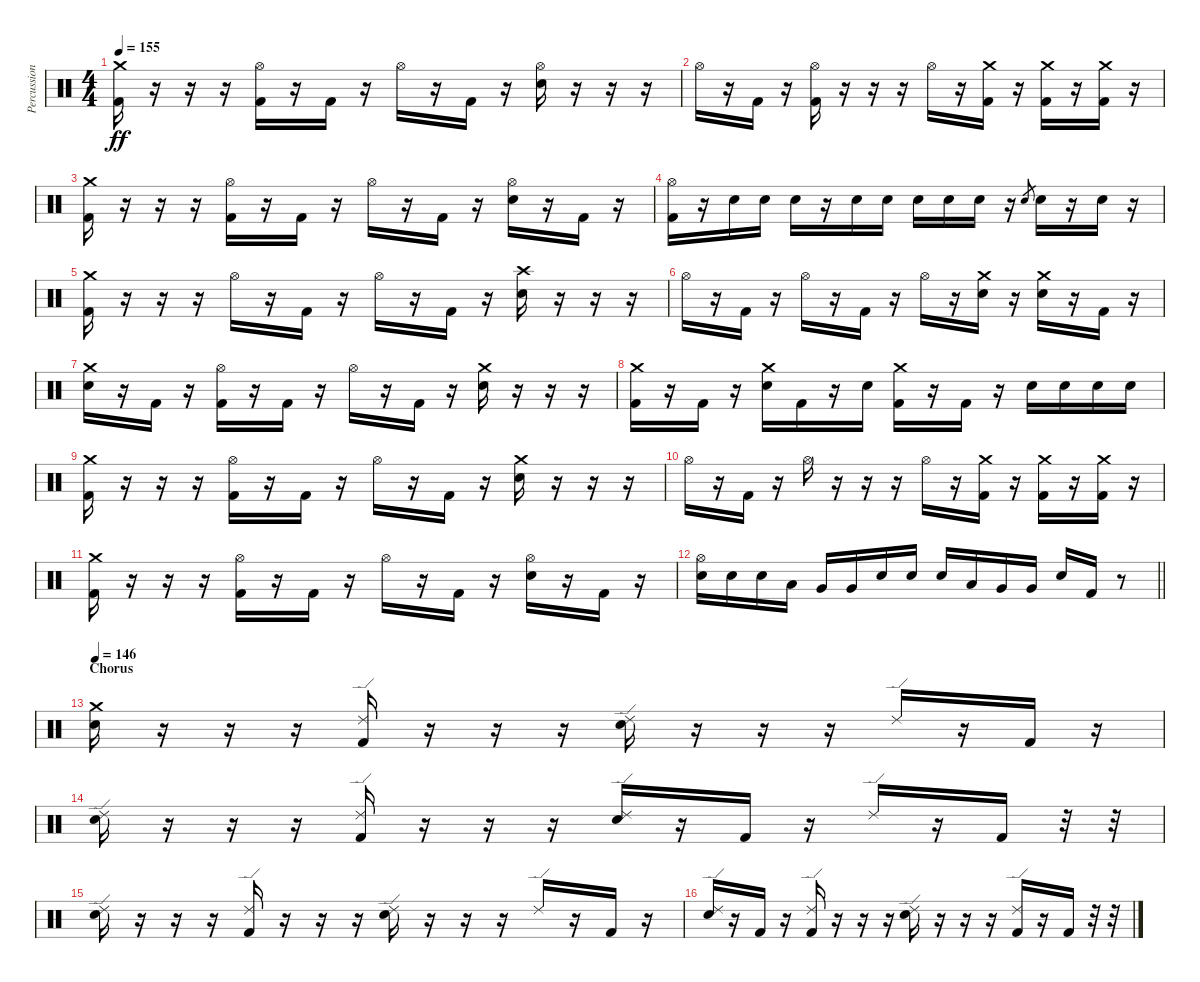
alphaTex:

\track ("Percussion" "Percussion") {instrument percussion}
\staff {score}
\articulation defaults
\ts (4 4)
\tempo 155
\clef neutral
\ks c
("Crash medium (hit)" "Kick (hit) 2").16{dy ff} r.16 r.16 r.16 ("Hi-Hat (open)" "Kick (hit) 2").16 r.16 "Kick (hit) 2".16 r.16 "Hi-Hat (open)".16 r.16 "Kick (hit) 2".16 r.16 ("Hi-Hat (open)" "Electric Snare (hit)").16 r.16 r.16 r.16 |
"Hi-Hat (open)".16 r.16 "Kick (hit) 2".16 r.16 ("Hi-Hat (open)" "Kick (hit) 2").16 r.16 r.16 r.16 "Hi-Hat (open)".16 r.16 ("Crash medium (hit)" "Kick (hit) 2").16 r.16 ("Crash medium (hit)" "Kick (hit) 2").16 r.16 ("Crash medium (hit)" "Kick (hit) 2").16 r.16 |
("Crash medium (hit)" "Kick (hit) 2").16 r.16 r.16 r.16 ("Hi-Hat (open)" "Kick (hit) 2").16 r.16 "Kick (hit) 2".16 r.16 "Hi-Hat (open)".16 r.16 "Kick (hit) 2".16 r.16 ("Hi-Hat (open)" "Electric Snare (hit)").16 r.16 "Kick (hit) 2".16 r.16 |
("Hi-Hat (open)" "Kick (hit) 2").16 r.16 "Electric Snare (hit)".16 "Electric Snare (hit)".16 "Electric Snare (hit)".16 r.16 "Electric Snare (hit)".16 "Electric Snare (hit)".16 "Electric Snare (hit)".16 "Electric Snare (hit)".16 "Electric Snare (hit)".16 r.16 "Electric Snare (hit)".8{gr} "Electric Snare (hit)".16 r.16 "Electric Snare (hit)".16 r.16 |
("Crash medium (hit)" "Kick (hit) 2").16 r.16 r.16 r.16 "Hi-Hat (open)".16 r.16 "Kick (hit) 2".16 r.16 "Hi-Hat (open)".16 r.16 "Kick (hit) 2".16 r.16 ("Crash high (hit)" "Electric Snare (hit)").16 r.16 r.16 r.16 |
"Hi-Hat (open)".16 r.16 "Kick (hit) 2".16 r.16 "Hi-Hat (open)".16 r.16 "Kick (hit) 2".16 r.16 "Hi-Hat (open)".16 r.16 ("Crash medium (hit)" "Electric Snare (hit)").16 r.16 ("Crash medium (hit)" "Electric Snare (hit)").16 r.16 "Kick (hit) 2".16 r.16 |
("Crash medium (hit)" "Electric Snare (hit)").16 r.16 "Kick (hit) 2".16 r.16 ("Hi-Hat (open)" "Kick (hit) 2").16 r.16 "Kick (hit) 2".16 r.16 "Hi-Hat (open)".16 r.16 "Kick (hit) 2".16 r.16 ("Crash medium (hit)" "Electric Snare (hit)").16 r.16 r.16 r.16 |
("Crash medium (hit)" "Kick (hit) 2").16 r.16 "Kick (hit) 2".16 r.16 ("Crash medium (hit)" "Electric Snare (hit)").16 "Kick (hit) 2".16 r.16 "Electric Snare (hit)".16 ("Crash medium (hit)" "Kick (hit) 2").16 r.16 "Kick (hit) 2".16 r.16 "Electric Snare (hit)".16 "Electric Snare (hit)".16 "Electric Snare (hit)".16 "Electric Snare (hit)".16 |
("Crash medium (hit)" "Kick (hit) 2").16 r.16 r.16 r.16 ("Hi-Hat (open)" "Kick (hit) 2").16 r.16 "Kick (hit) 2".16 r.16 "Hi-Hat (open)".16 r.16 "Kick (hit) 2".16 r.16 ("Crash medium (hit)" "Electric Snare (hit)").16 r.16 r.16 r.16 |
"Hi-Hat (open)".16 r.16 "Kick (hit) 2".16 r.16 "Hi-Hat (open)".16 r.16 r.16 r.16 "Hi-Hat (open)".16 r.16 ("Crash medium (hit)" "Kick (hit) 2").16 r.16 ("Crash medium (hit)" "Kick (hit) 2").16 r.16 ("Crash medium (hit)" "Kick (hit) 2").16 r.16 |
("Crash medium (hit)" "Kick (hit) 2").16 r.16 r.16 r.16 ("Hi-Hat (open)" "Kick (hit) 2").16 r.16 "Kick (hit) 2".16 r.16 "Hi-Hat (open)".16 r.16 "Kick (hit) 2".16 r.16 ("Hi-Hat (open)" "Electric Snare (hit)").16 r.16 "Kick (hit) 2".16 r.16 |
\barLineRight lightlight
("Hi-Hat (open)" "Electric Snare (hit)").16 "Electric Snare (hit)".16 "Electric Snare (hit)".16 "Low Tom (hit)".16 "Very Low Tom (hit)".16 "Very Low Tom (hit)".16 "Electric Snare (hit)".16 "Electric Snare (hit)".16 "Electric Snare (hit)".16 "Low Tom (hit)".16 "Very Low Tom (hit)".16 "Very Low Tom (hit)".16 "Electric Snare (hit)".16 "Kick (hit) 2".16 r.8 |
\section ("" "Chorus")
\tempo 146
("Crash medium (hit)" "Electric Snare (hit)").16 r.16 r.16 r.16 ("Ride (edge) 2" "Kick (hit) 2").16 r.16 r.16 r.16 ("Ride (edge) 2" "Electric Snare (hit)").16 r.16 r.16 r.16 "Ride (edge) 2".16 r.16 "Kick (hit) 2".16 r.16 |
("Ride (edge) 2" "Electric Snare (hit)").16 r.16 r.16 r.16 ("Ride (edge) 2" "Kick (hit) 2").16 r.16 r.16 r.16 ("Ride (edge) 2" "Electric Snare (hit)").16 r.16 "Kick (hit) 2".16 r.16 "Ride (edge) 2".16 r.16 "Kick (hit) 2".16 r.32 r.32 |
("Ride (edge) 2" "Electric Snare (hit)").16 r.16 r.16 r.16 ("Ride (edge) 2" "Kick (hit) 2").16 r.16 r.16 r.16 ("Ride (edge) 2" "Electric Snare (hit)").16 r.16 r.16 r.16 "Ride (edge) 2".16 r.16 "Kick (hit) 2".16 r.16 |
("Ride (edge) 2" "Electric Snare (hit)").16 r.16 "Kick (hit) 2".16 r.16 ("Ride (edge) 2" "Kick (hit) 2").16 r.16 r.16 r.16 ("Ride (edge) 2" "Electric Snare (hit)").16 r.16 r.16 r.16 ("Ride (edge) 2" "Kick (hit) 2").16 r.16 "Kick (hit) 2".16 r.32 r.32
